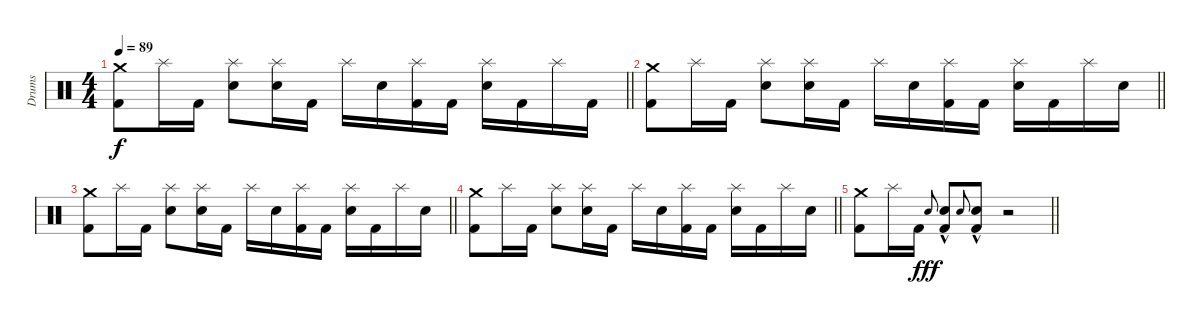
\track ("Drums" "Drums") {instrument percussion}
\staff {score}
\articulation defaults
\ts (4 4)
\tempo 89
\clef neutral
\barLineRight lightlight
\ks c
("Crash medium (hit)" "Kick (hit) 2").8{dy f} "Splash (hit)".16 "Kick (hit) 2".16 ("Splash (hit)" "Electric Snare (hit)").8 ("Splash (hit)" "Electric Snare (hit)").16 "Kick (hit) 2".16 "Splash (hit)".16 "Electric Snare (hit)".16 ("Splash (hit)" "Kick (hit) 2").16 "Kick (hit) 2".16 ("Splash (hit)" "Electric Snare (hit)").16 "Kick (hit) 2".16 "Splash (hit)".16 "Kick (hit) 2".16 |
\barLineRight lightlight
("Crash medium (hit)" "Kick (hit) 2").8 "Splash (hit)".16 "Kick (hit) 2".16 ("Splash (hit)" "Electric Snare (hit)").8 ("Splash (hit)" "Electric Snare (hit)").16 "Kick (hit) 2".16 "Splash (hit)".16 "Electric Snare (hit)".16 ("Splash (hit)" "Kick (hit) 2").16 "Kick (hit) 2".16 ("Splash (hit)" "Electric Snare (hit)").16 "Kick (hit) 2".16 "Splash (hit)".16 "Electric Snare (hit)".16 |
\barLineRight lightlight
("Crash medium (hit)" "Kick (hit) 2").8 "Splash (hit)".16 "Kick (hit) 2".16 ("Splash (hit)" "Electric Snare (hit)").8 ("Splash (hit)" "Electric Snare (hit)").16 "Kick (hit) 2".16 "Splash (hit)".16 "Electric Snare (hit)".16 ("Splash (hit)" "Kick (hit) 2").16 "Kick (hit) 2".16 ("Splash (hit)" "Electric Snare (hit)").16 "Kick (hit) 2".16 "Splash (hit)".16 "Electric Snare (hit)".16 |
\barLineRight lightlight
("Crash medium (hit)" "Kick (hit) 2").8 "Splash (hit)".16 "Kick (hit) 2".16 ("Splash (hit)" "Electric Snare (hit)").8 ("Splash (hit)" "Electric Snare (hit)").16 "Kick (hit) 2".16 "Splash (hit)".16 "Electric Snare (hit)".16 ("Splash (hit)" "Kick (hit) 2").16 "Kick (hit) 2".16 ("Splash (hit)" "Electric Snare (hit)").16 "Kick (hit) 2".16 "Splash (hit)".16 "Electric Snare (hit)".16 |
\barLineRight lightlight
("Crash medium (hit)" "Kick (hit) 2").8 "Splash (hit)".16 "Kick (hit) 2".16 "Electric Snare (hit)".8{gr onbeat dy fff} ("Electric Snare (hit)"{hac} "Kick (hit) 2").8 "Electric Snare (hit)".8{gr onbeat} ("Electric Snare (hit)"{hac} "Kick (hit) 2").8 r.2
